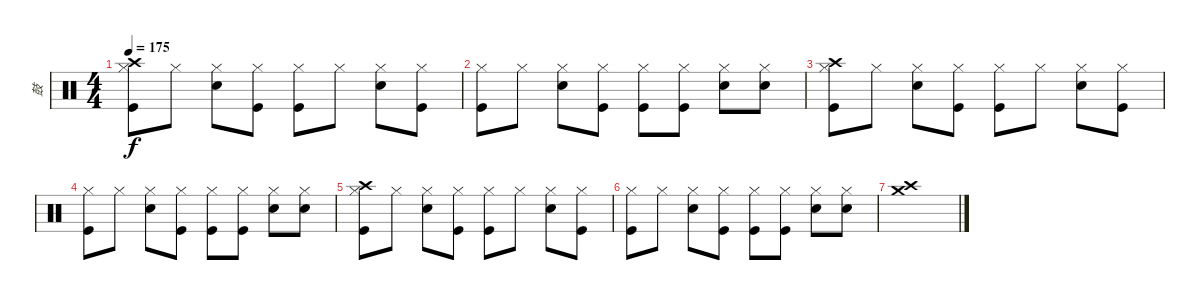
\track ("鼓" "鼓") {instrument percussion}
\staff {score}
\articulation defaults
\ts (4 4)
\tempo 175
\clef neutral
\ks c
("Crash high (hit)" "Hi-Hat (closed)" "Kick (hit)").8{dy f} "Hi-Hat (closed)".8 ("Hi-Hat (closed)" "Snare (hit) 2").8 ("Hi-Hat (closed)" "Kick (hit)").8 ("Hi-Hat (closed)" "Kick (hit)").8 "Hi-Hat (closed)".8 ("Hi-Hat (closed)" "Snare (hit) 2").8 ("Hi-Hat (closed)" "Kick (hit)").8 |
("Hi-Hat (closed)" "Kick (hit)").8 "Hi-Hat (closed)".8 ("Hi-Hat (closed)" "Snare (hit) 2").8 ("Hi-Hat (closed)" "Kick (hit)").8 ("Hi-Hat (closed)" "Kick (hit)").8 ("Hi-Hat (closed)" "Kick (hit)").8 ("Hi-Hat (closed)" "Snare (hit) 2").8 ("Hi-Hat (closed)" "Snare (hit) 2").8 |
("Crash high (hit)" "Hi-Hat (closed)" "Kick (hit)").8 "Hi-Hat (closed)".8 ("Hi-Hat (closed)" "Snare (hit) 2").8 ("Hi-Hat (closed)" "Kick (hit)").8 ("Hi-Hat (closed)" "Kick (hit)").8 "Hi-Hat (closed)".8 ("Hi-Hat (closed)" "Snare (hit) 2").8 ("Hi-Hat (closed)" "Kick (hit)").8 |
("Hi-Hat (closed)" "Kick (hit)").8 "Hi-Hat (closed)".8 ("Hi-Hat (closed)" "Snare (hit) 2").8 ("Hi-Hat (closed)" "Kick (hit)").8 ("Hi-Hat (closed)" "Kick (hit)").8 ("Hi-Hat (closed)" "Kick (hit)").8 ("Hi-Hat (closed)" "Snare (hit) 2").8 ("Hi-Hat (closed)" "Snare (hit) 2").8 |
("Crash high (hit)" "Hi-Hat (closed)" "Kick (hit)").8 "Hi-Hat (closed)".8 ("Hi-Hat (closed)" "Snare (hit) 2").8 ("Hi-Hat (closed)" "Kick (hit)").8 ("Hi-Hat (closed)" "Kick (hit)").8 "Hi-Hat (closed)".8 ("Hi-Hat (closed)" "Snare (hit) 2").8 ("Hi-Hat (closed)" "Kick (hit)").8 |
("Hi-Hat (closed)" "Kick (hit)").8 "Hi-Hat (closed)".8 ("Hi-Hat (closed)" "Snare (hit) 2").8 ("Hi-Hat (closed)" "Kick (hit)").8 ("Hi-Hat (closed)" "Kick (hit)").8 ("Hi-Hat (closed)" "Kick (hit)").8 ("Hi-Hat (closed)" "Snare (hit) 2").8 ("Hi-Hat (closed)" "Snare (hit) 2").8 |
("Crash high (hit)" "Crash medium (hit)").1
